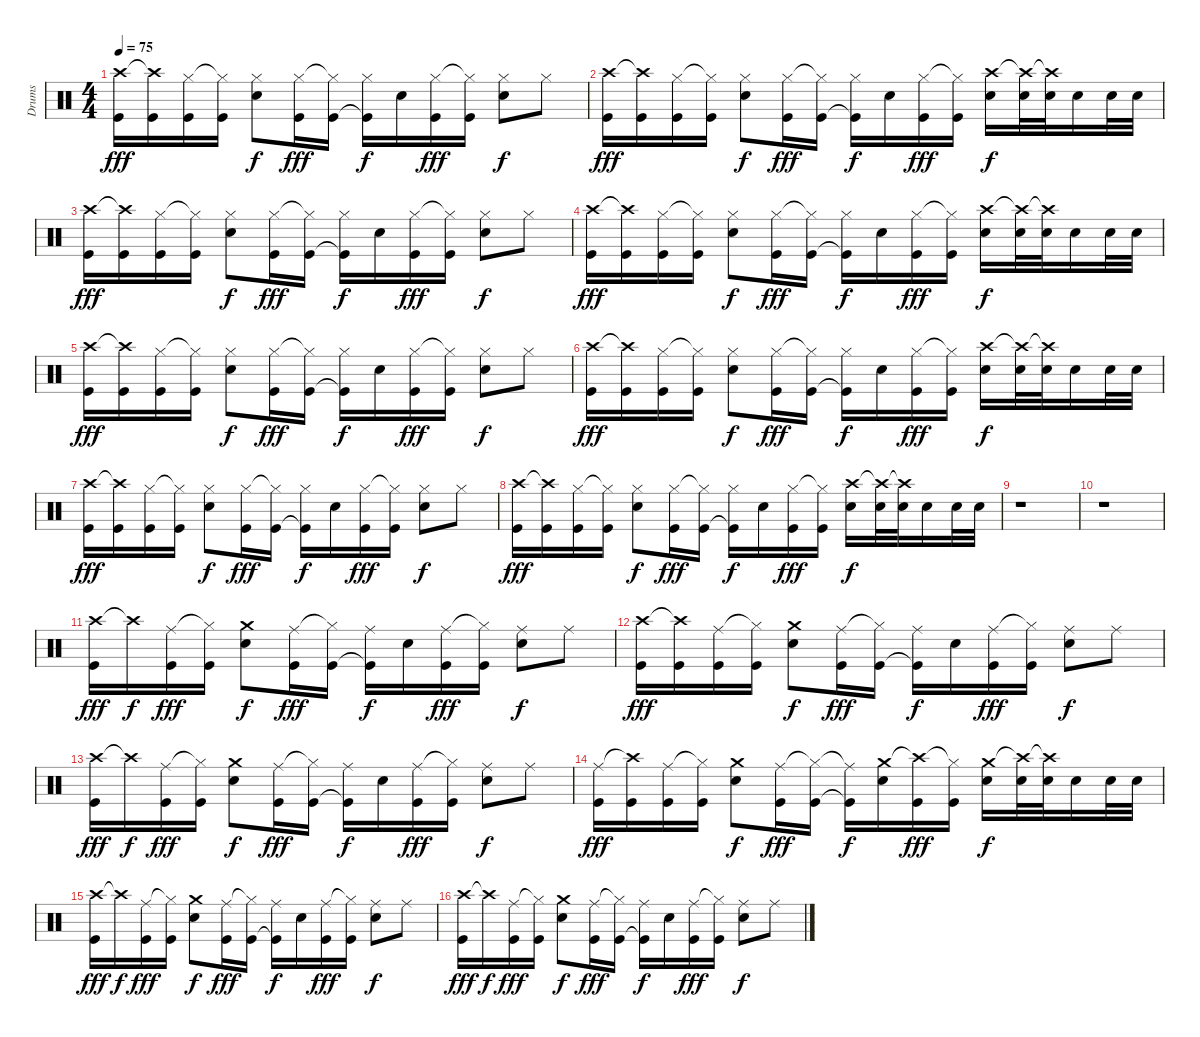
\track ("Drums" "Drums") {instrument percussion}
\staff {score}
\articulation defaults
\ts (4 4)
\tempo 75
\clef neutral
\ks c
("Crash high (hit)" "Kick (hit)").16{dy fff} ("Crash high (hit)"{t} "Kick (hit)").16 ("Hi-Hat (closed)" "Kick (hit)").16 ("Hi-Hat (closed)"{t} "Kick (hit)").16 ("Hi-Hat (closed)" "Snare (hit) 2").8{dy f} ("Hi-Hat (closed)" "Kick (hit)").16{dy fff} ("Hi-Hat (closed)"{t} "Kick (hit)").16 ("Hi-Hat (closed)" "Kick (hit)"{t}).16{dy f} "Snare (hit) 2".16 ("Hi-Hat (closed)" "Kick (hit)").16{dy fff} ("Hi-Hat (closed)"{t} "Kick (hit)").16 ("Hi-Hat (closed)" "Snare (hit) 2").8{dy f} "Hi-Hat (closed)".8 |
("Crash high (hit)" "Kick (hit)").16{dy fff} ("Crash high (hit)"{t} "Kick (hit)").16 ("Hi-Hat (closed)" "Kick (hit)").16 ("Hi-Hat (closed)"{t} "Kick (hit)").16 ("Hi-Hat (closed)" "Snare (hit) 2").8{dy f} ("Hi-Hat (closed)" "Kick (hit)").16{dy fff} ("Hi-Hat (closed)"{t} "Kick (hit)").16 ("Hi-Hat (closed)" "Kick (hit)"{t}).16{dy f} "Snare (hit) 2".16 ("Hi-Hat (closed)" "Kick (hit)").16{dy fff} ("Hi-Hat (closed)"{t} "Kick (hit)").16 ("Crash high (hit)" "Snare (hit) 2").16{dy f} ("Crash high (hit)"{t} "Snare (hit) 2").32 ("Crash high (hit)"{t} "Snare (hit) 2").32 "Snare (hit) 2".16 "Snare (hit) 2".32 "Snare (hit) 2".32 |
("Crash high (hit)" "Kick (hit)").16{dy fff} ("Crash high (hit)"{t} "Kick (hit)").16 ("Hi-Hat (closed)" "Kick (hit)").16 ("Hi-Hat (closed)"{t} "Kick (hit)").16 ("Hi-Hat (closed)" "Snare (hit) 2").8{dy f} ("Hi-Hat (closed)" "Kick (hit)").16{dy fff} ("Hi-Hat (closed)"{t} "Kick (hit)").16 ("Hi-Hat (closed)" "Kick (hit)"{t}).16{dy f} "Snare (hit) 2".16 ("Hi-Hat (closed)" "Kick (hit)").16{dy fff} ("Hi-Hat (closed)"{t} "Kick (hit)").16 ("Hi-Hat (closed)" "Snare (hit) 2").8{dy f} "Hi-Hat (closed)".8 |
("Crash high (hit)" "Kick (hit)").16{dy fff} ("Crash high (hit)"{t} "Kick (hit)").16 ("Hi-Hat (closed)" "Kick (hit)").16 ("Hi-Hat (closed)"{t} "Kick (hit)").16 ("Hi-Hat (closed)" "Snare (hit) 2").8{dy f} ("Hi-Hat (closed)" "Kick (hit)").16{dy fff} ("Hi-Hat (closed)"{t} "Kick (hit)").16 ("Hi-Hat (closed)" "Kick (hit)"{t}).16{dy f} "Snare (hit) 2".16 ("Hi-Hat (closed)" "Kick (hit)").16{dy fff} ("Hi-Hat (closed)"{t} "Kick (hit)").16 ("Crash high (hit)" "Snare (hit) 2").16{dy f} ("Crash high (hit)"{t} "Snare (hit) 2").32 ("Crash high (hit)"{t} "Snare (hit) 2").32 "Snare (hit) 2".16 "Snare (hit) 2".32 "Snare (hit) 2".32 |
("Crash high (hit)" "Kick (hit)").16{dy fff} ("Crash high (hit)"{t} "Kick (hit)").16 ("Hi-Hat (closed)" "Kick (hit)").16 ("Hi-Hat (closed)"{t} "Kick (hit)").16 ("Hi-Hat (closed)" "Snare (hit) 2").8{dy f} ("Hi-Hat (closed)" "Kick (hit)").16{dy fff} ("Hi-Hat (closed)"{t} "Kick (hit)").16 ("Hi-Hat (closed)" "Kick (hit)"{t}).16{dy f} "Snare (hit) 2".16 ("Hi-Hat (closed)" "Kick (hit)").16{dy fff} ("Hi-Hat (closed)"{t} "Kick (hit)").16 ("Hi-Hat (closed)" "Snare (hit) 2").8{dy f} "Hi-Hat (closed)".8 |
("Crash high (hit)" "Kick (hit)").16{dy fff} ("Crash high (hit)"{t} "Kick (hit)").16 ("Hi-Hat (closed)" "Kick (hit)").16 ("Hi-Hat (closed)"{t} "Kick (hit)").16 ("Hi-Hat (closed)" "Snare (hit) 2").8{dy f} ("Hi-Hat (closed)" "Kick (hit)").16{dy fff} ("Hi-Hat (closed)"{t} "Kick (hit)").16 ("Hi-Hat (closed)" "Kick (hit)"{t}).16{dy f} "Snare (hit) 2".16 ("Hi-Hat (closed)" "Kick (hit)").16{dy fff} ("Hi-Hat (closed)"{t} "Kick (hit)").16 ("Crash high (hit)" "Snare (hit) 2").16{dy f} ("Crash high (hit)"{t} "Snare (hit) 2").32 ("Crash high (hit)"{t} "Snare (hit) 2").32 "Snare (hit) 2".16 "Snare (hit) 2".32 "Snare (hit) 2".32 |
("Crash high (hit)" "Kick (hit)").16{dy fff} ("Crash high (hit)"{t} "Kick (hit)").16 ("Hi-Hat (closed)" "Kick (hit)").16 ("Hi-Hat (closed)"{t} "Kick (hit)").16 ("Hi-Hat (closed)" "Snare (hit) 2").8{dy f} ("Hi-Hat (closed)" "Kick (hit)").16{dy fff} ("Hi-Hat (closed)"{t} "Kick (hit)").16 ("Hi-Hat (closed)" "Kick (hit)"{t}).16{dy f} "Snare (hit) 2".16 ("Hi-Hat (closed)" "Kick (hit)").16{dy fff} ("Hi-Hat (closed)"{t} "Kick (hit)").16 ("Hi-Hat (closed)" "Snare (hit) 2").8{dy f} "Hi-Hat (closed)".8 |
("Crash high (hit)" "Kick (hit)").16{dy fff} ("Crash high (hit)"{t} "Kick (hit)").16 ("Hi-Hat (closed)" "Kick (hit)").16 ("Hi-Hat (closed)"{t} "Kick (hit)").16 ("Hi-Hat (closed)" "Snare (hit) 2").8{dy f} ("Hi-Hat (closed)" "Kick (hit)").16{dy fff} ("Hi-Hat (closed)"{t} "Kick (hit)").16 ("Hi-Hat (closed)" "Kick (hit)"{t}).16{dy f} "Snare (hit) 2".16 ("Hi-Hat (closed)" "Kick (hit)").16{dy fff} ("Hi-Hat (closed)"{t} "Kick (hit)").16 ("Crash high (hit)" "Snare (hit) 2").16{dy f} ("Crash high (hit)"{t} "Snare (hit) 2").32 ("Crash high (hit)"{t} "Snare (hit) 2").32 "Snare (hit) 2".16 "Snare (hit) 2".32 "Snare (hit) 2".32 |
r.1 |
r.1 |
("Crash high (hit)" "Kick (hit)").16{dy fff} "Crash high (hit)"{t}.16{dy f} ("Ride (middle)" "Kick (hit)").16{dy fff} ("Hi-Hat (closed)"{t} "Kick (hit)").16 ("Crash medium (hit)" "Snare (hit) 2").8{dy f} ("Ride (middle)" "Kick (hit)").16{dy fff} ("Hi-Hat (closed)"{t} "Kick (hit)").16 ("Ride (middle)" "Kick (hit)"{t}).16{dy f} "Snare (hit) 2".16 ("Ride (middle)" "Kick (hit)").16{dy fff} ("Hi-Hat (closed)"{t} "Kick (hit)").16 ("Ride (middle)" "Snare (hit) 2").8{dy f} "Ride (middle)".8 |
("Crash high (hit)" "Kick (hit)").16{dy fff} ("Crash high (hit)"{t} "Kick (hit)").16 ("Ride (middle)" "Kick (hit)").16 ("Hi-Hat (closed)"{t} "Kick (hit)").16 ("Crash medium (hit)" "Snare (hit) 2").8{dy f} ("Ride (middle)" "Kick (hit)").16{dy fff} ("Hi-Hat (closed)"{t} "Kick (hit)").16 ("Ride (middle)" "Kick (hit)"{t}).16{dy f} "Snare (hit) 2".16 ("Ride (middle)" "Kick (hit)").16{dy fff} ("Hi-Hat (closed)"{t} "Kick (hit)").16 ("Ride (middle)" "Snare (hit) 2").8{dy f} "Ride (middle)".8 |
("Crash high (hit)" "Kick (hit)").16{dy fff} "Crash high (hit)"{t}.16{dy f} ("Ride (middle)" "Kick (hit)").16{dy fff} ("Hi-Hat (closed)"{t} "Kick (hit)").16 ("Crash medium (hit)" "Snare (hit) 2").8{dy f} ("Ride (middle)" "Kick (hit)").16{dy fff} ("Hi-Hat (closed)"{t} "Kick (hit)").16 ("Ride (middle)" "Kick (hit)"{t}).16{dy f} "Snare (hit) 2".16 ("Ride (middle)" "Kick (hit)").16{dy fff} ("Hi-Hat (closed)"{t} "Kick (hit)").16 ("Ride (middle)" "Snare (hit) 2").8{dy f} "Ride (middle)".8 |
("Ride (middle)" "Kick (hit)").16{dy fff} ("Crash high (hit)"{t} "Kick (hit)").16 ("Ride (middle)" "Kick (hit)").16 ("Hi-Hat (closed)"{t} "Kick (hit)").16 ("Crash medium (hit)" "Snare (hit) 2").8{dy f} ("Ride (middle)" "Kick (hit)").16{dy fff} ("Hi-Hat (closed)"{t} "Kick (hit)").16 ("Ride (middle)"{t} "Kick (hit)"{t}).16{dy f} ("Crash medium (hit)" "Snare (hit) 2").16 ("Crash high (hit)"{t} "Kick (hit)").16{dy fff} ("Hi-Hat (closed)"{t} "Kick (hit)").16 ("Crash medium (hit)" "Snare (hit) 2").16{dy f} ("Crash high (hit)"{t} "Snare (hit) 2").32 ("Crash high (hit)"{t} "Snare (hit) 2").32 "Snare (hit) 2".16 "Snare (hit) 2".32 "Snare (hit) 2".32 |
("Crash high (hit)" "Kick (hit)").16{dy fff} "Crash high (hit)"{t}.16{dy f} ("Ride (middle)" "Kick (hit)").16{dy fff} ("Hi-Hat (closed)"{t} "Kick (hit)").16 ("Crash medium (hit)" "Snare (hit) 2").8{dy f} ("Ride (middle)" "Kick (hit)").16{dy fff} ("Hi-Hat (closed)"{t} "Kick (hit)").16 ("Ride (middle)" "Kick (hit)"{t}).16{dy f} "Snare (hit) 2".16 ("Ride (middle)" "Kick (hit)").16{dy fff} ("Hi-Hat (closed)"{t} "Kick (hit)").16 ("Ride (middle)" "Snare (hit) 2").8{dy f} "Ride (middle)".8 |
("Crash high (hit)" "Kick (hit)").16{dy fff} "Crash high (hit)"{t}.16{dy f} ("Ride (middle)" "Kick (hit)").16{dy fff} ("Hi-Hat (closed)"{t} "Kick (hit)").16 ("Crash medium (hit)" "Snare (hit) 2").8{dy f} ("Ride (middle)" "Kick (hit)").16{dy fff} ("Hi-Hat (closed)"{t} "Kick (hit)").16 ("Ride (middle)" "Kick (hit)"{t}).16{dy f} "Snare (hit) 2".16 ("Ride (middle)" "Kick (hit)").16{dy fff} ("Hi-Hat (closed)"{t} "Kick (hit)").16 ("Ride (middle)" "Snare (hit) 2").8{dy f} "Ride (middle)".8
